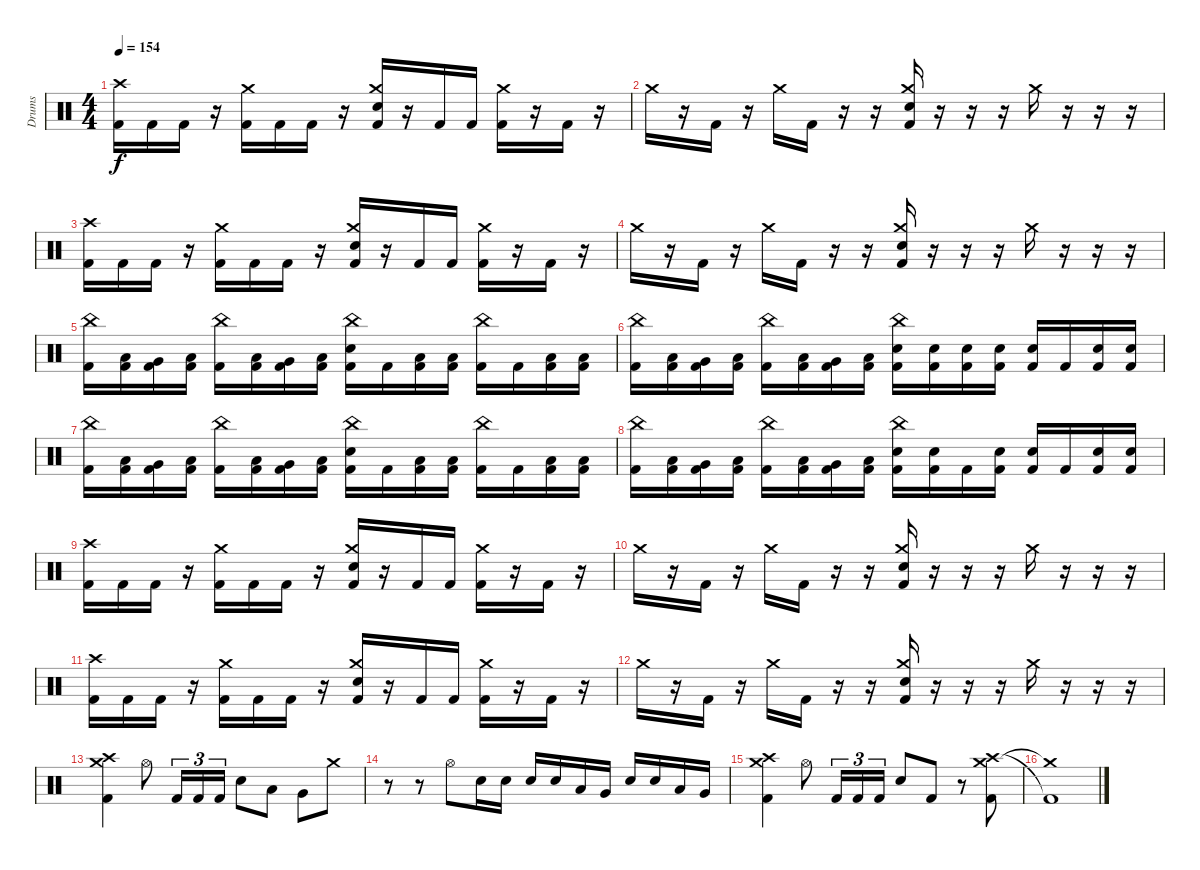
\track ("Drums" "Drums") {instrument percussion}
\staff {score}
\articulation defaults
\ts (4 4)
\tempo 154
\clef neutral
\ks c
("Crash high (hit)" "Kick (hit) 2").16{dy f} "Kick (hit) 2".16 "Kick (hit) 2".16 r.16 ("Crash medium (hit)" "Kick (hit) 2").16 "Kick (hit) 2".16 "Kick (hit) 2".16 r.16 ("Crash medium (hit)" "Electric Snare (hit)" "Kick (hit) 2").16 r.16 "Kick (hit) 2".16 "Kick (hit) 2".16 ("Crash medium (hit)" "Kick (hit) 2").16 r.16 "Kick (hit) 2".16 r.16 |
"Crash medium (hit)".16 r.16 "Kick (hit) 2".16 r.16 "Crash medium (hit)".16 "Kick (hit) 2".16 r.16 r.16 ("Crash medium (hit)" "Electric Snare (hit)" "Kick (hit) 2").16 r.16 r.16 r.16 "Crash medium (hit)".16 r.16 r.16 r.16 |
("Crash high (hit)" "Kick (hit) 2").16 "Kick (hit) 2".16 "Kick (hit) 2".16 r.16 ("Crash medium (hit)" "Kick (hit) 2").16 "Kick (hit) 2".16 "Kick (hit) 2".16 r.16 ("Crash medium (hit)" "Electric Snare (hit)" "Kick (hit) 2").16 r.16 "Kick (hit) 2".16 "Kick (hit) 2".16 ("Crash medium (hit)" "Kick (hit) 2").16 r.16 "Kick (hit) 2".16 r.16 |
"Crash medium (hit)".16 r.16 "Kick (hit) 2".16 r.16 "Crash medium (hit)".16 "Kick (hit) 2".16 r.16 r.16 ("Crash medium (hit)" "Electric Snare (hit)" "Kick (hit) 2").16 r.16 r.16 r.16 "Crash medium (hit)".16 r.16 r.16 r.16 |
("China (hit)" "Kick (hit) 2").16 ("Low Tom (hit)" "Kick (hit) 2").16 ("Very Low Tom (hit)" "Kick (hit) 2").16 ("Low Floor Tom (hit)" "Kick (hit) 2").16 ("China (hit)" "Kick (hit) 2").16 ("Low Tom (hit)" "Kick (hit) 2").16 ("Very Low Tom (hit)" "Kick (hit) 2").16 ("Low Floor Tom (hit)" "Kick (hit) 2").16 ("China (hit)" "Electric Snare (hit)" "Kick (hit) 2").16 "Kick (hit) 2".16 ("Low Tom (hit)" "Kick (hit) 2").16 ("Low Tom (hit)" "Kick (hit) 2").16 ("China (hit)" "Kick (hit) 2").16 "Kick (hit) 2".16 ("Low Floor Tom (hit)" "Kick (hit) 2").16 ("Low Floor Tom (hit)" "Kick (hit) 2").16 |
("China (hit)" "Kick (hit) 2").16 ("Low Tom (hit)" "Kick (hit) 2").16 ("Very Low Tom (hit)" "Kick (hit) 2").16 ("Low Floor Tom (hit)" "Kick (hit) 2").16 ("China (hit)" "Kick (hit) 2").16 ("Low Tom (hit)" "Kick (hit) 2").16 ("Very Low Tom (hit)" "Kick (hit) 2").16 ("Low Floor Tom (hit)" "Kick (hit) 2").16 ("China (hit)" "Electric Snare (hit)" "Kick (hit) 2").16 ("Electric Snare (hit)" "Kick (hit) 2").16 ("Electric Snare (hit)" "Kick (hit) 2").16 ("Electric Snare (hit)" "Kick (hit) 2").16 ("Electric Snare (hit)" "Kick (hit) 2").16 "Kick (hit) 2".16 ("Electric Snare (hit)" "Kick (hit) 2").16 ("Electric Snare (hit)" "Kick (hit) 2").16 |
("China (hit)" "Kick (hit) 2").16 ("Low Tom (hit)" "Kick (hit) 2").16 ("Very Low Tom (hit)" "Kick (hit) 2").16 ("Low Floor Tom (hit)" "Kick (hit) 2").16 ("China (hit)" "Kick (hit) 2").16 ("Low Tom (hit)" "Kick (hit) 2").16 ("Very Low Tom (hit)" "Kick (hit) 2").16 ("Low Floor Tom (hit)" "Kick (hit) 2").16 ("China (hit)" "Electric Snare (hit)" "Kick (hit) 2").16 "Kick (hit) 2".16 ("Low Tom (hit)" "Kick (hit) 2").16 ("Low Tom (hit)" "Kick (hit) 2").16 ("China (hit)" "Kick (hit) 2").16 "Kick (hit) 2".16 ("Low Floor Tom (hit)" "Kick (hit) 2").16 ("Low Floor Tom (hit)" "Kick (hit) 2").16 |
("China (hit)" "Kick (hit) 2").16 ("Low Tom (hit)" "Kick (hit) 2").16 ("Very Low Tom (hit)" "Kick (hit) 2").16 ("Low Floor Tom (hit)" "Kick (hit) 2").16 ("China (hit)" "Kick (hit) 2").16 ("Low Tom (hit)" "Kick (hit) 2").16 ("Very Low Tom (hit)" "Kick (hit) 2").16 ("Low Floor Tom (hit)" "Kick (hit) 2").16 ("China (hit)" "Electric Snare (hit)" "Kick (hit) 2").16 ("Electric Snare (hit)" "Kick (hit) 2").16 "Kick (hit) 2".16 ("Electric Snare (hit)" "Kick (hit) 2").16 ("Electric Snare (hit)" "Kick (hit) 2").16 "Kick (hit) 2".16 ("Electric Snare (hit)" "Kick (hit) 2").16 ("Electric Snare (hit)" "Kick (hit) 2").16 |
("Crash high (hit)" "Kick (hit) 2").16 "Kick (hit) 2".16 "Kick (hit) 2".16 r.16 ("Crash medium (hit)" "Kick (hit) 2").16 "Kick (hit) 2".16 "Kick (hit) 2".16 r.16 ("Crash medium (hit)" "Electric Snare (hit)" "Kick (hit) 2").16 r.16 "Kick (hit) 2".16 "Kick (hit) 2".16 ("Crash medium (hit)" "Kick (hit) 2").16 r.16 "Kick (hit) 2".16 r.16 |
"Crash medium (hit)".16 r.16 "Kick (hit) 2".16 r.16 "Crash medium (hit)".16 "Kick (hit) 2".16 r.16 r.16 ("Crash medium (hit)" "Electric Snare (hit)" "Kick (hit) 2").16 r.16 r.16 r.16 "Crash medium (hit)".16 r.16 r.16 r.16 |
("Crash high (hit)" "Kick (hit) 2").16 "Kick (hit) 2".16 "Kick (hit) 2".16 r.16 ("Crash medium (hit)" "Kick (hit) 2").16 "Kick (hit) 2".16 "Kick (hit) 2".16 r.16 ("Crash medium (hit)" "Electric Snare (hit)" "Kick (hit) 2").16 r.16 "Kick (hit) 2".16 "Kick (hit) 2".16 ("Crash medium (hit)" "Kick (hit) 2").16 r.16 "Kick (hit) 2".16 r.16 |
"Crash medium (hit)".16 r.16 "Kick (hit) 2".16 r.16 "Crash medium (hit)".16 "Kick (hit) 2".16 r.16 r.16 ("Crash medium (hit)" "Electric Snare (hit)" "Kick (hit) 2").16 r.16 r.16 r.16 "Crash medium (hit)".16 r.16 r.16 r.16 |
("Crash medium (hit)" "Crash high (hit)" "Kick (hit) 2").4 "Hi-Hat (open)".8 "Kick (hit) 2".16{tu (3 2)} "Kick (hit) 2".16{tu (3 2)} "Kick (hit) 2".16{tu (3 2)} "Electric Snare (hit)".8 "Low Tom (hit)".8 "Very Low Tom (hit)".8 "Crash medium (hit)".8 |
r.8 r.8 "Hi-Hat (open)".8 "Electric Snare (hit)".16 "Electric Snare (hit)".16 "Electric Snare (hit)".16 "Electric Snare (hit)".16 "Low Tom (hit)".16 "Very Low Tom (hit)".16 "Electric Snare (hit)".16 "Electric Snare (hit)".16 "Low Tom (hit)".16 "Very Low Tom (hit)".16 |
("Crash medium (hit)" "Crash high (hit)" "Kick (hit) 2").4 "Hi-Hat (open)".8 "Kick (hit) 2".16{tu (3 2)} "Kick (hit) 2".16{tu (3 2)} "Kick (hit) 2".16{tu (3 2)} "Electric Snare (hit)".8 "Kick (hit) 2".8 r.8 ("Crash medium (hit)" "Crash high (hit)" "Kick (hit) 2").8 |
("Crash medium (hit)"{t} "Kick (hit) 2"{t}).1
